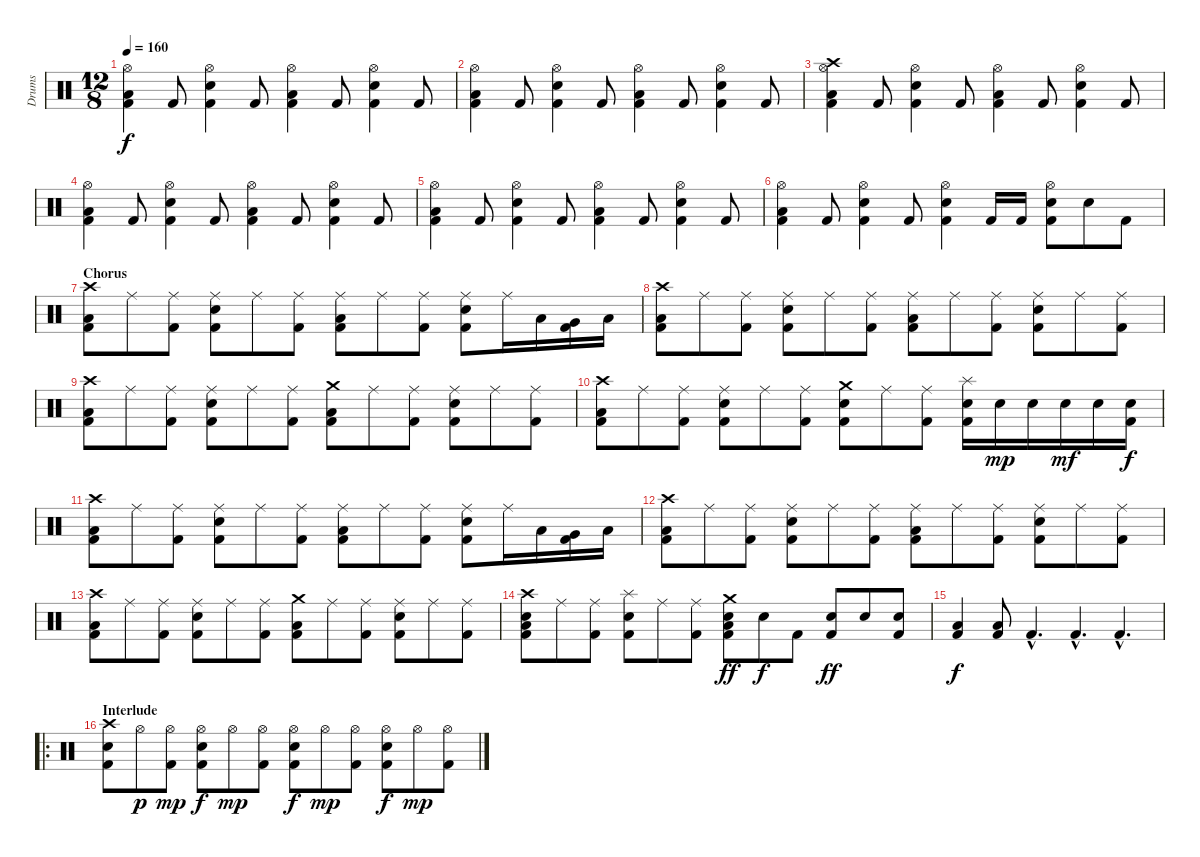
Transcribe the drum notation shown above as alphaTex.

\track ("Drums" "Drums") {instrument percussion}
\staff {score}
\articulation defaults
\ts (12 8)
\tempo 160
\clef neutral
\ks c
("Hi-Hat (open)" "Low Tom (hit)" "Kick (hit) 2").4{dy f} "Kick (hit) 2".8 ("Hi-Hat (open)" "Electric Snare (hit)" "Kick (hit) 2").4 "Kick (hit) 2".8 ("Hi-Hat (open)" "Low Tom (hit)" "Kick (hit) 2").4 "Kick (hit) 2".8 ("Hi-Hat (open)" "Electric Snare (hit)" "Kick (hit) 2").4 "Kick (hit) 2".8 |
("Hi-Hat (open)" "Low Tom (hit)" "Kick (hit) 2").4 "Kick (hit) 2".8 ("Hi-Hat (open)" "Electric Snare (hit)" "Kick (hit) 2").4 "Kick (hit) 2".8 ("Hi-Hat (open)" "Low Tom (hit)" "Kick (hit) 2").4 "Kick (hit) 2".8 ("Hi-Hat (open)" "Electric Snare (hit)" "Kick (hit) 2").4 "Kick (hit) 2".8 |
("Crash high (hit)" "Hi-Hat (open)" "Low Tom (hit)" "Kick (hit) 2").4 "Kick (hit) 2".8 ("Hi-Hat (open)" "Electric Snare (hit)" "Kick (hit) 2").4 "Kick (hit) 2".8 ("Hi-Hat (open)" "Low Tom (hit)" "Kick (hit) 2").4 "Kick (hit) 2".8 ("Hi-Hat (open)" "Electric Snare (hit)" "Kick (hit) 2").4 "Kick (hit) 2".8 |
("Hi-Hat (open)" "Low Tom (hit)" "Kick (hit) 2").4 "Kick (hit) 2".8 ("Hi-Hat (open)" "Electric Snare (hit)" "Kick (hit) 2").4 "Kick (hit) 2".8 ("Hi-Hat (open)" "Low Tom (hit)" "Kick (hit) 2").4 "Kick (hit) 2".8 ("Hi-Hat (open)" "Electric Snare (hit)" "Kick (hit) 2").4 "Kick (hit) 2".8 |
("Hi-Hat (open)" "Low Tom (hit)" "Kick (hit) 2").4 "Kick (hit) 2".8 ("Hi-Hat (open)" "Electric Snare (hit)" "Kick (hit) 2").4 "Kick (hit) 2".8 ("Hi-Hat (open)" "Low Tom (hit)" "Kick (hit) 2").4 "Kick (hit) 2".8 ("Hi-Hat (open)" "Electric Snare (hit)" "Kick (hit) 2").4 "Kick (hit) 2".8 |
("Hi-Hat (open)" "Low Tom (hit)" "Kick (hit) 2").4 "Kick (hit) 2".8 ("Hi-Hat (open)" "Electric Snare (hit)" "Kick (hit) 2").4 "Kick (hit) 2".8 ("Hi-Hat (open)" "Electric Snare (hit)" "Kick (hit) 2").4 "Kick (hit) 2".16 "Kick (hit) 2".16 ("Hi-Hat (open)" "Electric Snare (hit)" "Kick (hit) 2").8 "Electric Snare (hit)".8 "Kick (hit) 2".8 |
\section ("" "Chorus")
("Crash high (hit)" "Low Tom (hit)" "Kick (hit) 2").8 "Ride (middle)".8 ("Ride (middle)" "Kick (hit) 2").8 ("Ride (middle)" "Electric Snare (hit)" "Kick (hit) 2").8 "Ride (middle)".8 ("Ride (middle)" "Kick (hit) 2").8 ("Ride (middle)" "Low Tom (hit)" "Kick (hit) 2").8 "Ride (middle)".8 ("Ride (middle)" "Kick (hit) 2").8 ("Ride (middle)" "Electric Snare (hit)" "Kick (hit) 2").8 "Ride (middle)".16 "Low Floor Tom (hit)".16 ("Very Low Tom (hit)" "Kick (hit) 2").16 "Low Tom (hit)".16 |
("Crash high (hit)" "Low Tom (hit)" "Kick (hit) 2").8 "Ride (middle)".8 ("Ride (middle)" "Kick (hit) 2").8 ("Ride (middle)" "Electric Snare (hit)" "Kick (hit) 2").8 "Ride (middle)".8 ("Ride (middle)" "Kick (hit) 2").8 ("Ride (middle)" "Low Tom (hit)" "Kick (hit) 2").8 "Ride (middle)".8 ("Ride (middle)" "Kick (hit) 2").8 ("Ride (middle)" "Electric Snare (hit)" "Kick (hit) 2").8 "Ride (middle)".8 ("Ride (middle)" "Kick (hit) 2").8 |
("Crash high (hit)" "Low Tom (hit)" "Kick (hit) 2").8 "Ride (middle)".8 ("Ride (middle)" "Kick (hit) 2").8 ("Ride (middle)" "Electric Snare (hit)" "Kick (hit) 2").8 "Ride (middle)".8 ("Ride (middle)" "Kick (hit) 2").8 ("Crash medium (hit)" "Low Tom (hit)" "Kick (hit) 2").8 "Ride (middle)".8 ("Ride (middle)" "Kick (hit) 2").8 ("Ride (middle)" "Electric Snare (hit)" "Kick (hit) 2").8 "Ride (middle)".8 ("Ride (middle)" "Kick (hit) 2").8 |
("Crash high (hit)" "Low Tom (hit)" "Kick (hit) 2").8 "Ride (middle)".8 ("Ride (middle)" "Kick (hit) 2").8 ("Ride (middle)" "Electric Snare (hit)" "Kick (hit) 2").8 "Ride (middle)".8 ("Ride (middle)" "Kick (hit) 2").8 ("Crash medium (hit)" "Electric Snare (hit)" "Kick (hit) 2").8 "Ride (middle)".8 ("Ride (middle)" "Kick (hit) 2").8 ("Splash (hit)" "Electric Snare (hit)" "Kick (hit) 2").16 "Electric Snare (hit)".16{dy mp} "Electric Snare (hit)".16 "Electric Snare (hit)".16{dy mf} "Electric Snare (hit)".16 ("Electric Snare (hit)" "Kick (hit) 2").16{dy f} |
("Crash high (hit)" "Low Tom (hit)" "Kick (hit) 2").8 "Ride (middle)".8 ("Ride (middle)" "Kick (hit) 2").8 ("Ride (middle)" "Electric Snare (hit)" "Kick (hit) 2").8 "Ride (middle)".8 ("Ride (middle)" "Kick (hit) 2").8 ("Ride (middle)" "Low Tom (hit)" "Kick (hit) 2").8 "Ride (middle)".8 ("Ride (middle)" "Kick (hit) 2").8 ("Ride (middle)" "Electric Snare (hit)" "Kick (hit) 2").8 "Ride (middle)".16 "Low Floor Tom (hit)".16 ("Very Low Tom (hit)" "Kick (hit) 2").16 "Low Tom (hit)".16 |
("Crash high (hit)" "Low Tom (hit)" "Kick (hit) 2").8 "Ride (middle)".8 ("Ride (middle)" "Kick (hit) 2").8 ("Ride (middle)" "Electric Snare (hit)" "Kick (hit) 2").8 "Ride (middle)".8 ("Ride (middle)" "Kick (hit) 2").8 ("Ride (middle)" "Low Tom (hit)" "Kick (hit) 2").8 "Ride (middle)".8 ("Ride (middle)" "Kick (hit) 2").8 ("Ride (middle)" "Electric Snare (hit)" "Kick (hit) 2").8 "Ride (middle)".8 ("Ride (middle)" "Kick (hit) 2").8 |
("Crash high (hit)" "Low Tom (hit)" "Kick (hit) 2").8 "Ride (middle)".8 ("Ride (middle)" "Kick (hit) 2").8 ("Ride (middle)" "Electric Snare (hit)" "Kick (hit) 2").8 "Ride (middle)".8 ("Ride (middle)" "Kick (hit) 2").8 ("Crash medium (hit)" "Low Tom (hit)" "Kick (hit) 2").8 "Ride (middle)".8 ("Ride (middle)" "Kick (hit) 2").8 ("Ride (middle)" "Electric Snare (hit)" "Kick (hit) 2").8 "Ride (middle)".8 ("Ride (middle)" "Kick (hit) 2").8 |
("Crash high (hit)" "Electric Snare (hit)" "Low Tom (hit)" "Kick (hit) 2").8 "Ride (middle)".8 ("Ride (middle)" "Kick (hit) 2").8 ("Splash (hit)" "Electric Snare (hit)" "Kick (hit) 2").8 "Ride (middle)".8 ("Ride (middle)" "Kick (hit) 2").8 ("Crash medium (hit)" "Electric Snare (hit)" "Low Tom (hit)" "Kick (hit) 2").8{dy ff} "Electric Snare (hit)".8{dy f} "Kick (hit) 2".8 ("Electric Snare (hit)" "Kick (hit) 2").8{dy ff} "Electric Snare (hit)".8 ("Electric Snare (hit)" "Kick (hit) 2").8 |
("Low Tom (hit)" "Kick (hit) 2").4{dy f} ("Low Tom (hit)" "Kick (hit) 2").8 "Kick (hit) 2"{hac}.4{d} "Kick (hit) 2"{hac}.4{d} "Kick (hit) 2"{hac}.4{d} |
\ro
\section ("" "Interlude")
("Crash high (hit)" "Electric Snare (hit)" "Kick (hit) 2").8 "Hi-Hat (open)".8{dy p} ("Hi-Hat (open)" "Kick (hit) 2").8{dy mp} ("Hi-Hat (open)" "Electric Snare (hit)" "Kick (hit) 2").8{dy f} "Hi-Hat (open)".8{dy mp} ("Hi-Hat (open)" "Kick (hit) 2").8 ("Hi-Hat (open)" "Electric Snare (hit)" "Kick (hit) 2").8{dy f} "Hi-Hat (open)".8{dy mp} ("Hi-Hat (open)" "Kick (hit) 2").8 ("Hi-Hat (open)" "Electric Snare (hit)" "Kick (hit) 2").8{dy f} "Hi-Hat (open)".8{dy mp} ("Hi-Hat (open)" "Kick (hit) 2").8
